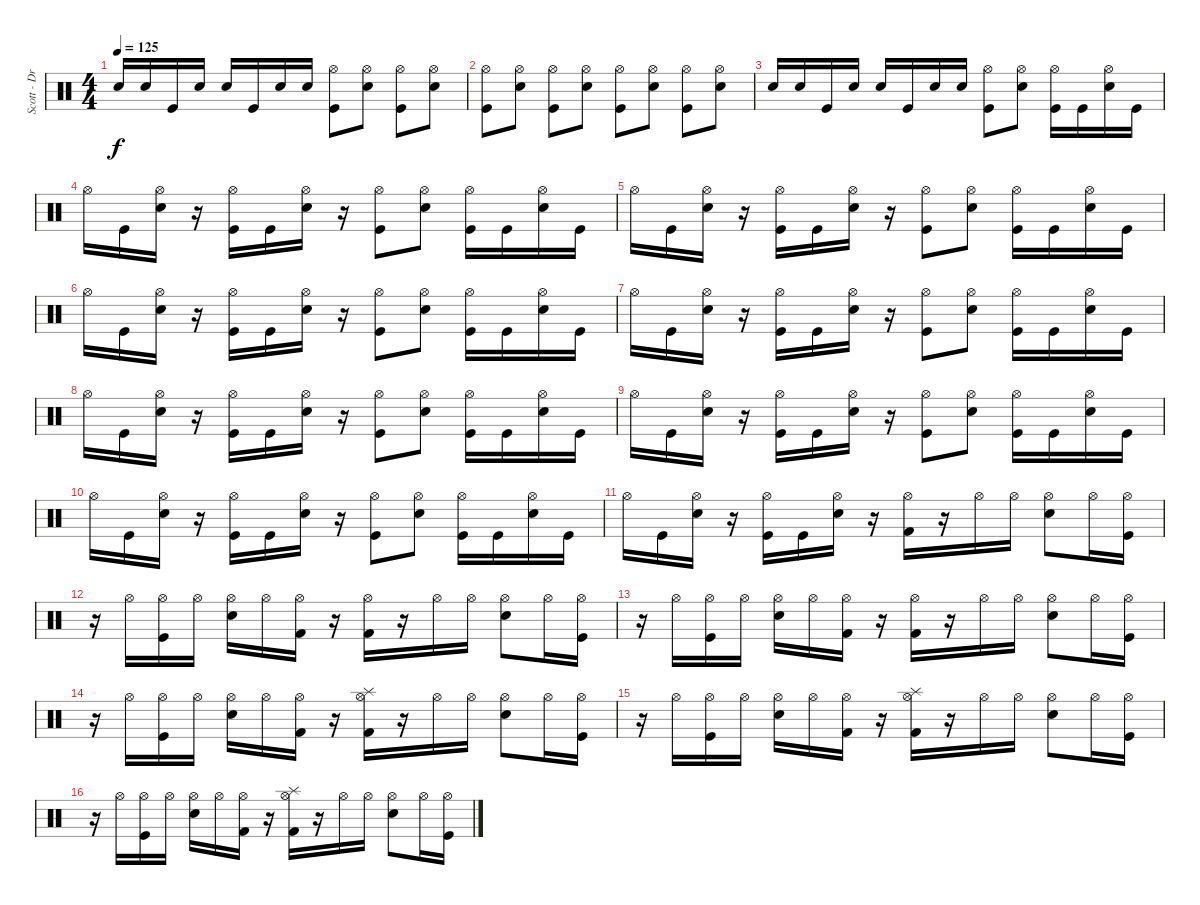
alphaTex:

\track ("Scott - Drums" "Scott - Dr") {instrument percussion}
\staff {score}
\articulation defaults
\ts (4 4)
\tempo 125
\clef neutral
\ks c "Snare (hit) 2".16{dy f} "Snare (hit) 2".16 "Kick (hit)".16 "Snare (hit) 2".16 "Snare (hit) 2".16 "Kick (hit)".16 "Snare (hit) 2".16 "Snare (hit) 2".16
("Hi-Hat (open)" "Kick (hit)").8 ("Hi-Hat (open)" "Snare (hit) 2").8 ("Hi-Hat (open)" "Kick (hit)").8 ("Hi-Hat (open)" "Snare (hit) 2").8 |
("Hi-Hat (open)" "Kick (hit)").8 ("Hi-Hat (open)" "Snare (hit) 2").8 ("Hi-Hat (open)" "Kick (hit)").8 ("Hi-Hat (open)" "Snare (hit) 2").8 ("Hi-Hat (open)" "Kick (hit)").8 ("Hi-Hat (open)" "Snare (hit) 2").8 ("Hi-Hat (open)" "Kick (hit)").8 ("Hi-Hat (open)" "Snare (hit) 2").8 |
"Snare (hit) 2".16 "Snare (hit) 2".16 "Kick (hit)".16 "Snare (hit) 2".16 "Snare (hit) 2".16 "Kick (hit)".16 "Snare (hit) 2".16 "Snare (hit) 2".16 ("Hi-Hat (open)" "Kick (hit)").8 ("Hi-Hat (open)" "Snare (hit) 2").8 ("Hi-Hat (open)" "Kick (hit)").16 "Kick (hit)".16 ("Hi-Hat (open)" "Snare (hit) 2").16 "Kick (hit)".16 |
"Hi-Hat (open)".16 "Kick (hit)".16 ("Hi-Hat (open)" "Snare (hit) 2").16 r.16 ("Hi-Hat (open)" "Kick (hit)").16 "Kick (hit)".16 ("Hi-Hat (open)" "Snare (hit) 2").16 r.16 ("Hi-Hat (open)" "Kick (hit)").8 ("Hi-Hat (open)" "Snare (hit) 2").8 ("Hi-Hat (open)" "Kick (hit)").16 "Kick (hit)".16 ("Hi-Hat (open)" "Snare (hit) 2").16 "Kick (hit)".16 |
"Hi-Hat (open)".16 "Kick (hit)".16 ("Hi-Hat (open)" "Snare (hit) 2").16 r.16 ("Hi-Hat (open)" "Kick (hit)").16 "Kick (hit)".16 ("Hi-Hat (open)" "Snare (hit) 2").16 r.16 ("Hi-Hat (open)" "Kick (hit)").8 ("Hi-Hat (open)" "Snare (hit) 2").8 ("Hi-Hat (open)" "Kick (hit)").16 "Kick (hit)".16 ("Hi-Hat (open)" "Snare (hit) 2").16 "Kick (hit)".16 |
"Hi-Hat (open)".16 "Kick (hit)".16 ("Hi-Hat (open)" "Snare (hit) 2").16 r.16 ("Hi-Hat (open)" "Kick (hit)").16 "Kick (hit)".16 ("Hi-Hat (open)" "Snare (hit) 2").16 r.16 ("Hi-Hat (open)" "Kick (hit)").8 ("Hi-Hat (open)" "Snare (hit) 2").8 ("Hi-Hat (open)" "Kick (hit)").16 "Kick (hit)".16 ("Hi-Hat (open)" "Snare (hit) 2").16 "Kick (hit)".16 |
"Hi-Hat (open)".16 "Kick (hit)".16 ("Hi-Hat (open)" "Snare (hit) 2").16 r.16 ("Hi-Hat (open)" "Kick (hit)").16 "Kick (hit)".16 ("Hi-Hat (open)" "Snare (hit) 2").16 r.16 ("Hi-Hat (open)" "Kick (hit)").8 ("Hi-Hat (open)" "Snare (hit) 2").8 ("Hi-Hat (open)" "Kick (hit)").16 "Kick (hit)".16 ("Hi-Hat (open)" "Snare (hit) 2").16 "Kick (hit)".16 |
"Hi-Hat (open)".16 "Kick (hit)".16 ("Hi-Hat (open)" "Snare (hit) 2").16 r.16 ("Hi-Hat (open)" "Kick (hit)").16 "Kick (hit)".16 ("Hi-Hat (open)" "Snare (hit) 2").16 r.16 ("Hi-Hat (open)" "Kick (hit)").8 ("Hi-Hat (open)" "Snare (hit) 2").8 ("Hi-Hat (open)" "Kick (hit)").16 "Kick (hit)".16 ("Hi-Hat (open)" "Snare (hit) 2").16 "Kick (hit)".16 |
"Hi-Hat (open)".16 "Kick (hit)".16 ("Hi-Hat (open)" "Snare (hit) 2").16 r.16 ("Hi-Hat (open)" "Kick (hit)").16 "Kick (hit)".16 ("Hi-Hat (open)" "Snare (hit) 2").16 r.16 ("Hi-Hat (open)" "Kick (hit)").8 ("Hi-Hat (open)" "Snare (hit) 2").8 ("Hi-Hat (open)" "Kick (hit)").16 "Kick (hit)".16 ("Hi-Hat (open)" "Snare (hit) 2").16 "Kick (hit)".16 |
"Hi-Hat (open)".16 "Kick (hit)".16 ("Hi-Hat (open)" "Snare (hit) 2").16 r.16 ("Hi-Hat (open)" "Kick (hit)").16 "Kick (hit)".16 ("Hi-Hat (open)" "Snare (hit) 2").16 r.16 ("Hi-Hat (open)" "Kick (hit)").8 ("Hi-Hat (open)" "Snare (hit) 2").8 ("Hi-Hat (open)" "Kick (hit)").16 "Kick (hit)".16 ("Hi-Hat (open)" "Snare (hit) 2").16 "Kick (hit)".16 |
"Hi-Hat (open)".16 "Kick (hit)".16 ("Hi-Hat (open)" "Snare (hit) 2").16 r.16 ("Hi-Hat (open)" "Kick (hit)").16 "Kick (hit)".16 ("Hi-Hat (open)" "Snare (hit) 2").16 r.16 ("Hi-Hat (open)" "Kick (hit) 2").16 r.16 "Hi-Hat (open)".16 "Hi-Hat (open)".16 ("Hi-Hat (open)" "Snare (hit) 2").8 "Hi-Hat (open)".16 ("Hi-Hat (open)" "Kick (hit)").16 |
r.16 "Hi-Hat (open)".16 ("Hi-Hat (open)" "Kick (hit)").16 "Hi-Hat (open)".16 ("Hi-Hat (open)" "Snare (hit) 2").16 "Hi-Hat (open)".16 ("Hi-Hat (open)" "Kick (hit) 2").16 r.16 ("Hi-Hat (open)" "Kick (hit) 2").16 r.16 "Hi-Hat (open)".16 "Hi-Hat (open)".16 ("Hi-Hat (open)" "Snare (hit) 2").8 "Hi-Hat (open)".16 ("Hi-Hat (open)" "Kick (hit)").16 |
r.16 "Hi-Hat (open)".16 ("Hi-Hat (open)" "Kick (hit)").16 "Hi-Hat (open)".16 ("Hi-Hat (open)" "Snare (hit) 2").16 "Hi-Hat (open)".16 ("Hi-Hat (open)" "Kick (hit) 2").16 r.16 ("Hi-Hat (open)" "Kick (hit) 2").16 r.16 "Hi-Hat (open)".16 "Hi-Hat (open)".16 ("Hi-Hat (open)" "Snare (hit) 2").8 "Hi-Hat (open)".16 ("Hi-Hat (open)" "Kick (hit)").16 |
r.16 "Hi-Hat (open)".16 ("Hi-Hat (open)" "Kick (hit)").16 "Hi-Hat (open)".16 ("Hi-Hat (open)" "Snare (hit) 2").16 "Hi-Hat (open)".16 ("Hi-Hat (open)" "Kick (hit) 2").16 r.16 ("Hi-Hat (open)" "Kick (hit) 2" "Splash (hit)").16 r.16 "Hi-Hat (open)".16 "Hi-Hat (open)".16 ("Hi-Hat (open)" "Snare (hit) 2").8 "Hi-Hat (open)".16 ("Hi-Hat (open)" "Kick (hit)").16 |
r.16 "Hi-Hat (open)".16 ("Hi-Hat (open)" "Kick (hit)").16 "Hi-Hat (open)".16 ("Hi-Hat (open)" "Snare (hit) 2").16 "Hi-Hat (open)".16 ("Hi-Hat (open)" "Kick (hit) 2").16 r.16 ("Hi-Hat (open)" "Kick (hit) 2" "Splash (hit)").16 r.16 "Hi-Hat (open)".16 "Hi-Hat (open)".16 ("Hi-Hat (open)" "Snare (hit) 2").8 "Hi-Hat (open)".16 ("Hi-Hat (open)" "Kick (hit)").16 |
r.16 "Hi-Hat (open)".16 ("Hi-Hat (open)" "Kick (hit)").16 "Hi-Hat (open)".16 ("Hi-Hat (open)" "Snare (hit) 2").16 "Hi-Hat (open)".16 ("Hi-Hat (open)" "Kick (hit) 2").16 r.16 ("Hi-Hat (open)" "Kick (hit) 2" "Splash (hit)").16 r.16 "Hi-Hat (open)".16 "Hi-Hat (open)".16 ("Hi-Hat (open)" "Snare (hit) 2").8 "Hi-Hat (open)".16 ("Hi-Hat (open)" "Kick (hit)").16
